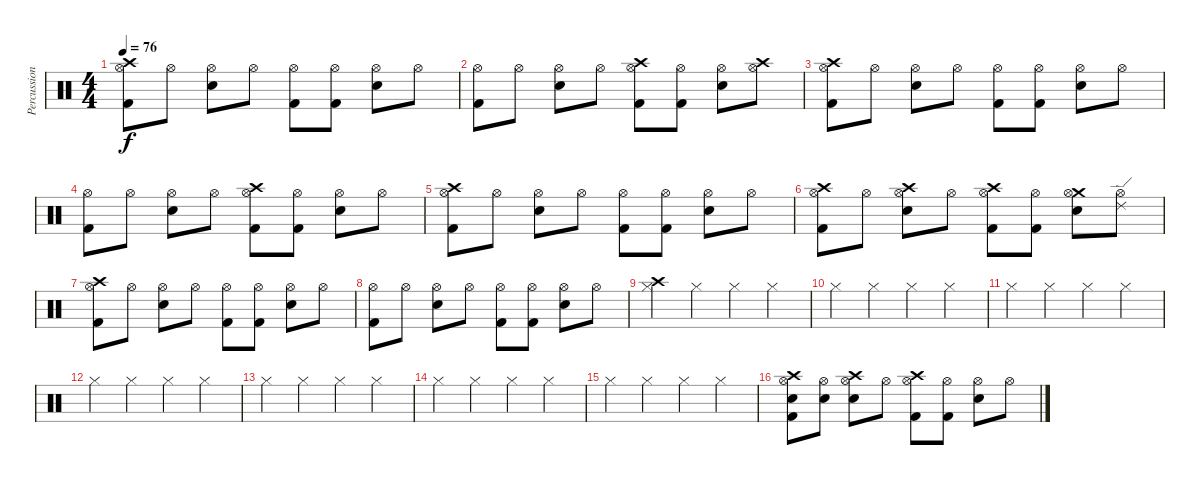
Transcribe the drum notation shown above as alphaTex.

\track ("Percussions" "Percussion") {instrument percussion}
\staff {score}
\articulation defaults
\ts (4 4)
\tempo 76
\clef neutral
\ks c
("Crash high (hit)" "Kick (hit) 2" "Hi-Hat (open)").8{dy f} "Hi-Hat (open)".8 ("Hi-Hat (open)" "Snare (hit) 2").8 "Hi-Hat (open)".8 ("Kick (hit) 2" "Hi-Hat (open)").8 ("Kick (hit) 2" "Hi-Hat (open)").8 ("Hi-Hat (open)" "Snare (hit) 2").8 "Hi-Hat (open)".8 |
("Kick (hit) 2" "Hi-Hat (open)").8 "Hi-Hat (open)".8 ("Hi-Hat (open)" "Snare (hit) 2").8 "Hi-Hat (open)".8 ("Crash high (hit)" "Kick (hit) 2" "Hi-Hat (open)").8 ("Kick (hit) 2" "Hi-Hat (open)").8 ("Hi-Hat (open)" "Snare (hit) 2").8 ("Crash high (hit)" "Hi-Hat (open)").8 |
("Crash high (hit)" "Kick (hit) 2" "Hi-Hat (open)").8 "Hi-Hat (open)".8 ("Hi-Hat (open)" "Snare (hit) 2").8 "Hi-Hat (open)".8 ("Kick (hit) 2" "Hi-Hat (open)").8 ("Kick (hit) 2" "Hi-Hat (open)").8 ("Hi-Hat (open)" "Snare (hit) 2").8 "Hi-Hat (open)".8 |
("Kick (hit) 2" "Hi-Hat (open)").8 "Hi-Hat (open)".8 ("Hi-Hat (open)" "Snare (hit) 2").8 "Hi-Hat (open)".8 ("Crash high (hit)" "Kick (hit) 2" "Hi-Hat (open)").8 ("Kick (hit) 2" "Hi-Hat (open)").8 ("Hi-Hat (open)" "Snare (hit) 2").8 "Hi-Hat (open)".8 |
("Crash high (hit)" "Kick (hit) 2" "Hi-Hat (open)").8 "Hi-Hat (open)".8 ("Hi-Hat (open)" "Snare (hit) 2").8 "Hi-Hat (open)".8 ("Kick (hit) 2" "Hi-Hat (open)").8 ("Kick (hit) 2" "Hi-Hat (open)").8 ("Hi-Hat (open)" "Snare (hit) 2").8 "Hi-Hat (open)".8 |
("Crash high (hit)" "Kick (hit) 2" "Hi-Hat (open)").8 "Hi-Hat (open)".8 ("Crash high (hit)" "Hi-Hat (open)" "Snare (hit) 2").8 "Hi-Hat (open)".8 ("Crash high (hit)" "Kick (hit) 2" "Hi-Hat (open)").8 ("Kick (hit) 2" "Hi-Hat (open)").8 ("Crash medium (hit)" "Hi-Hat (open)" "Snare (hit) 2").8 ("Ride (edge) 2" "Hi-Hat (open)").8 |
("Crash high (hit)" "Kick (hit) 2" "Hi-Hat (open)").8 "Hi-Hat (open)".8 ("Hi-Hat (open)" "Snare (hit) 2").8 "Hi-Hat (open)".8 ("Kick (hit) 2" "Hi-Hat (open)").8 ("Kick (hit) 2" "Hi-Hat (open)").8 ("Hi-Hat (open)" "Snare (hit) 2").8 "Hi-Hat (open)".8 |
("Kick (hit) 2" "Hi-Hat (open)").8 "Hi-Hat (open)".8 ("Hi-Hat (open)" "Snare (hit) 2").8 "Hi-Hat (open)".8 ("Kick (hit) 2" "Hi-Hat (open)").8 ("Kick (hit) 2" "Hi-Hat (open)").8 ("Hi-Hat (open)" "Snare (hit) 2").8 "Hi-Hat (open)".8 |
("Crash high (hit)" "Hi-Hat (closed)").4 "Hi-Hat (closed)".4 "Hi-Hat (closed)".4 "Hi-Hat (closed)".4 |
"Hi-Hat (closed)".4 "Hi-Hat (closed)".4 "Hi-Hat (closed)".4 "Hi-Hat (closed)".4 |
"Hi-Hat (closed)".4 "Hi-Hat (closed)".4 "Hi-Hat (closed)".4 "Hi-Hat (closed)".4 |
"Hi-Hat (closed)".4 "Hi-Hat (closed)".4 "Hi-Hat (closed)".4 "Hi-Hat (closed)".4 |
"Hi-Hat (closed)".4 "Hi-Hat (closed)".4 "Hi-Hat (closed)".4 "Hi-Hat (closed)".4 |
"Hi-Hat (closed)".4 "Hi-Hat (closed)".4 "Hi-Hat (closed)".4 "Hi-Hat (closed)".4 |
"Hi-Hat (closed)".4 "Hi-Hat (closed)".4 "Hi-Hat (closed)".4 "Hi-Hat (closed)".4 |
("Crash high (hit)" "Kick (hit) 2" "Hi-Hat (open)" "Snare (hit) 2").8 ("Hi-Hat (open)" "Snare (hit) 2").8 ("Crash high (hit)" "Hi-Hat (open)" "Snare (hit) 2").8 "Hi-Hat (open)".8 ("Crash high (hit)" "Kick (hit) 2" "Hi-Hat (open)").8 ("Kick (hit) 2" "Hi-Hat (open)").8 ("Hi-Hat (open)" "Snare (hit) 2").8 "Hi-Hat (open)".8
